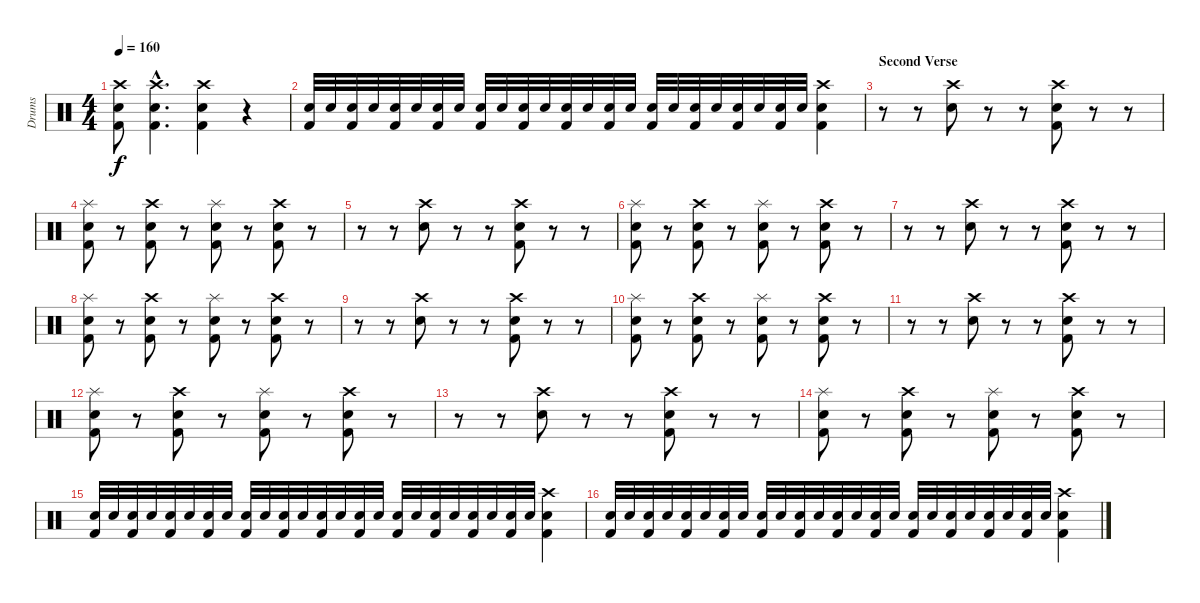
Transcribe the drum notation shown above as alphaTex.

\track ("Drums" "Drums") {instrument percussion}
\staff {score}
\articulation defaults
\ts (4 4)
\tempo 160
\clef neutral
\ks c
("Crash high (hit)" "Snare (hit) 2" "Kick (hit) 2").8{dy f} ("Crash high (hit)"{hac} "Snare (hit) 2"{hac} "Kick (hit) 2"{hac}).4{d} ("Snare (hit) 2" "Crash high (hit)" "Kick (hit) 2").4 r.4 |
("Kick (hit) 2" "Snare (hit) 2").32 "Snare (hit) 2".32 ("Kick (hit) 2" "Snare (hit) 2").32 "Snare (hit) 2".32 ("Kick (hit) 2" "Snare (hit) 2").32 "Snare (hit) 2".32 ("Kick (hit) 2" "Snare (hit) 2").32 "Snare (hit) 2".32 ("Kick (hit) 2" "Snare (hit) 2").32 "Snare (hit) 2".32 ("Kick (hit) 2" "Snare (hit) 2").32 "Snare (hit) 2".32 ("Kick (hit) 2" "Snare (hit) 2").32 "Snare (hit) 2".32 ("Kick (hit) 2" "Snare (hit) 2").32 "Snare (hit) 2".32 ("Kick (hit) 2" "Snare (hit) 2").32 "Snare (hit) 2".32 ("Kick (hit) 2" "Snare (hit) 2").32 "Snare (hit) 2".32 ("Kick (hit) 2" "Snare (hit) 2").32 "Snare (hit) 2".32 ("Snare (hit) 2" "Kick (hit) 2").32 "Snare (hit) 2".32 ("Snare (hit) 2" "Crash high (hit)" "Kick (hit) 2").4 |
\section ("" "Second Verse")
r.8 r.8 ("Crash high (hit)" "Snare (hit) 2").8 r.8 r.8 ("Kick (hit) 2" "Snare (hit) 2" "Crash high (hit)").8 r.8 r.8 |
("Kick (hit) 2" "Splash (hit)" "Snare (hit) 2").8 r.8 ("Kick (hit) 2" "Snare (hit) 2" "Crash high (hit)").8 r.8 ("Kick (hit) 2" "Snare (hit) 2" "Splash (hit)").8 r.8 ("Kick (hit) 2" "Crash high (hit)" "Snare (hit) 2").8 r.8 |
r.8 r.8 ("Crash high (hit)" "Snare (hit) 2").8 r.8 r.8 ("Kick (hit) 2" "Snare (hit) 2" "Crash high (hit)").8 r.8 r.8 |
("Kick (hit) 2" "Splash (hit)" "Snare (hit) 2").8 r.8 ("Kick (hit) 2" "Snare (hit) 2" "Crash high (hit)").8 r.8 ("Kick (hit) 2" "Snare (hit) 2" "Splash (hit)").8 r.8 ("Kick (hit) 2" "Crash high (hit)" "Snare (hit) 2").8 r.8 |
r.8 r.8 ("Crash high (hit)" "Snare (hit) 2").8 r.8 r.8 ("Kick (hit) 2" "Snare (hit) 2" "Crash high (hit)").8 r.8 r.8 |
("Kick (hit) 2" "Splash (hit)" "Snare (hit) 2").8 r.8 ("Kick (hit) 2" "Snare (hit) 2" "Crash high (hit)").8 r.8 ("Kick (hit) 2" "Snare (hit) 2" "Splash (hit)").8 r.8 ("Kick (hit) 2" "Crash high (hit)" "Snare (hit) 2").8 r.8 |
r.8 r.8 ("Crash high (hit)" "Snare (hit) 2").8 r.8 r.8 ("Kick (hit) 2" "Snare (hit) 2" "Crash high (hit)").8 r.8 r.8 |
("Kick (hit) 2" "Splash (hit)" "Snare (hit) 2").8 r.8 ("Kick (hit) 2" "Snare (hit) 2" "Crash high (hit)").8 r.8 ("Kick (hit) 2" "Snare (hit) 2" "Splash (hit)").8 r.8 ("Kick (hit) 2" "Crash high (hit)" "Snare (hit) 2").8 r.8 |
r.8 r.8 ("Crash high (hit)" "Snare (hit) 2").8 r.8 r.8 ("Kick (hit) 2" "Snare (hit) 2" "Crash high (hit)").8 r.8 r.8 |
("Kick (hit) 2" "Splash (hit)" "Snare (hit) 2").8 r.8 ("Kick (hit) 2" "Snare (hit) 2" "Crash high (hit)").8 r.8 ("Kick (hit) 2" "Snare (hit) 2" "Splash (hit)").8 r.8 ("Kick (hit) 2" "Crash high (hit)" "Snare (hit) 2").8 r.8 |
r.8 r.8 ("Crash high (hit)" "Snare (hit) 2").8 r.8 r.8 ("Kick (hit) 2" "Snare (hit) 2" "Crash high (hit)").8 r.8 r.8 |
("Kick (hit) 2" "Splash (hit)" "Snare (hit) 2").8 r.8 ("Kick (hit) 2" "Snare (hit) 2" "Crash high (hit)").8 r.8 ("Kick (hit) 2" "Snare (hit) 2" "Splash (hit)").8 r.8 ("Kick (hit) 2" "Crash high (hit)" "Snare (hit) 2").8 r.8 |
("Kick (hit) 2" "Snare (hit) 2").32 "Snare (hit) 2".32 ("Kick (hit) 2" "Snare (hit) 2").32 "Snare (hit) 2".32 ("Kick (hit) 2" "Snare (hit) 2").32 "Snare (hit) 2".32 ("Kick (hit) 2" "Snare (hit) 2").32 "Snare (hit) 2".32 ("Kick (hit) 2" "Snare (hit) 2").32 "Snare (hit) 2".32 ("Kick (hit) 2" "Snare (hit) 2").32 "Snare (hit) 2".32 ("Kick (hit) 2" "Snare (hit) 2").32 "Snare (hit) 2".32 ("Kick (hit) 2" "Snare (hit) 2").32 "Snare (hit) 2".32 ("Kick (hit) 2" "Snare (hit) 2").32 "Snare (hit) 2".32 ("Kick (hit) 2" "Snare (hit) 2").32 "Snare (hit) 2".32 ("Kick (hit) 2" "Snare (hit) 2").32 "Snare (hit) 2".32 ("Snare (hit) 2" "Kick (hit) 2").32 "Snare (hit) 2".32 ("Snare (hit) 2" "Crash high (hit)" "Kick (hit) 2").4 |
("Kick (hit) 2" "Snare (hit) 2").32 "Snare (hit) 2".32 ("Kick (hit) 2" "Snare (hit) 2").32 "Snare (hit) 2".32 ("Kick (hit) 2" "Snare (hit) 2").32 "Snare (hit) 2".32 ("Kick (hit) 2" "Snare (hit) 2").32 "Snare (hit) 2".32 ("Kick (hit) 2" "Snare (hit) 2").32 "Snare (hit) 2".32 ("Kick (hit) 2" "Snare (hit) 2").32 "Snare (hit) 2".32 ("Kick (hit) 2" "Snare (hit) 2").32 "Snare (hit) 2".32 ("Kick (hit) 2" "Snare (hit) 2").32 "Snare (hit) 2".32 ("Kick (hit) 2" "Snare (hit) 2").32 "Snare (hit) 2".32 ("Kick (hit) 2" "Snare (hit) 2").32 "Snare (hit) 2".32 ("Kick (hit) 2" "Snare (hit) 2").32 "Snare (hit) 2".32 ("Snare (hit) 2" "Kick (hit) 2").32 "Snare (hit) 2".32 ("Snare (hit) 2" "Crash high (hit)" "Kick (hit) 2").4
